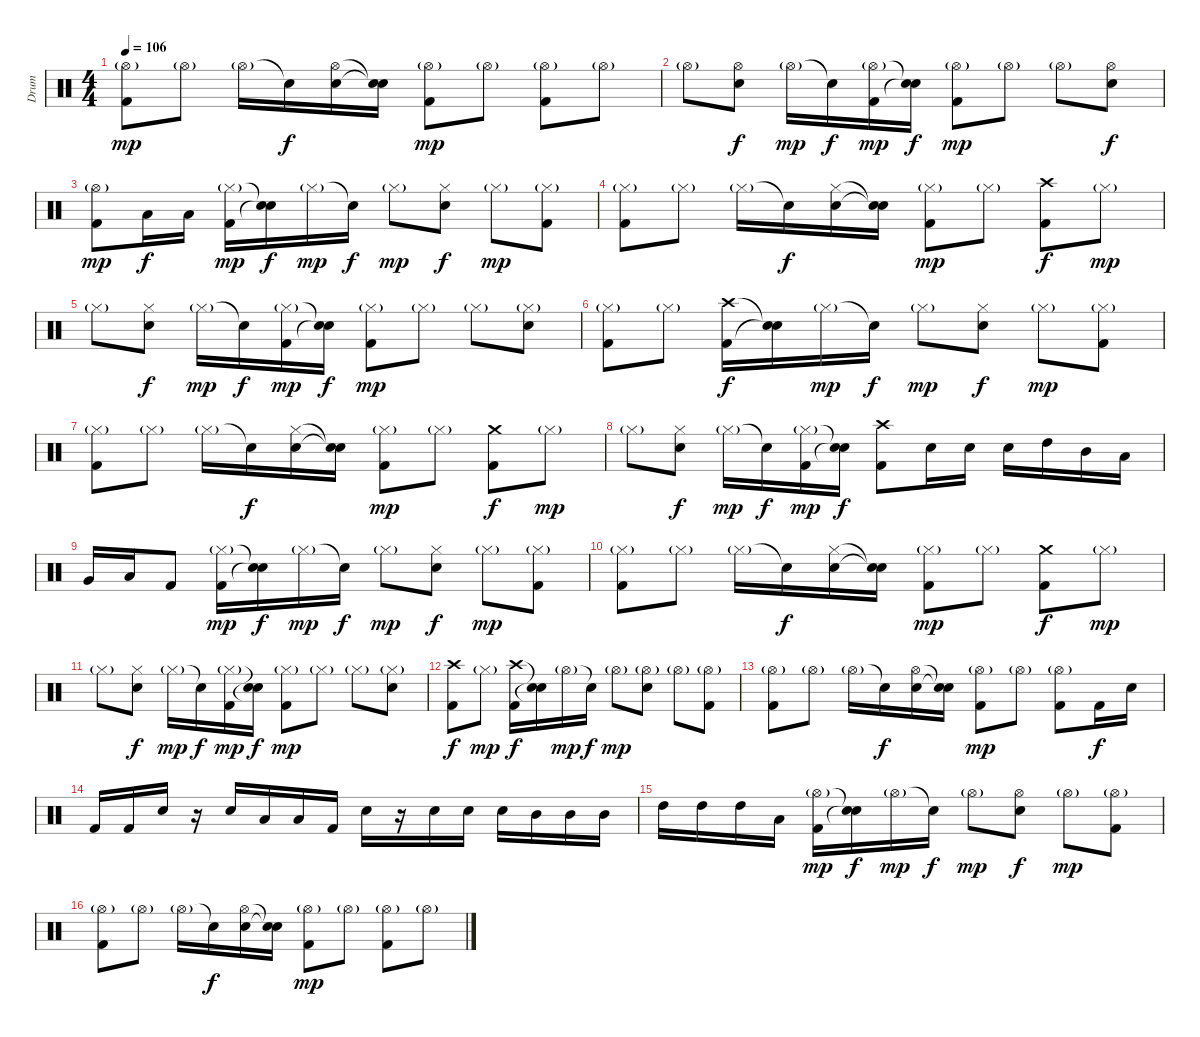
\track ("Drum" "Drum") {instrument percussion}
\staff {score}
\articulation defaults
\ts (4 4)
\tempo 106
\clef neutral
\ks c
("Hi-Hat (open)"{g} "Kick (hit) 2").8{dy mp} "Hi-Hat (open)"{g}.8 "Hi-Hat (open)"{g}.16 "Snare (hit)"{t}.16{dy f} ("Hi-Hat (open)" "Electric Snare (hit)").16 ("Snare (hit)"{t} "Snare (hit)"{t}).16 ("Hi-Hat (open)"{g} "Kick (hit) 2").8{dy mp} "Hi-Hat (open)"{g}.8 ("Hi-Hat (open)"{g} "Kick (hit) 2").8 "Hi-Hat (open)"{g}.8 |
"Hi-Hat (open)"{g}.8 ("Hi-Hat (open)" "Electric Snare (hit)").8{dy f} "Hi-Hat (open)"{g}.16{dy mp} "Snare (hit)"{t}.16{dy f} ("Hi-Hat (open)"{g} "Kick (hit) 2").16{dy mp} ("Snare (hit)"{t} "Snare (hit)"{t}).16{dy f} ("Hi-Hat (open)"{g} "Kick (hit) 2").8{dy mp} "Hi-Hat (open)"{g}.8 "Hi-Hat (open)"{g}.8 ("Hi-Hat (open)" "Electric Snare (hit)").8{dy f} |
("Hi-Hat (open)"{g} "Kick (hit) 2").8{dy mp} "Low Tom (hit)".16{dy f} "Low Floor Tom (hit)".16 ("Hi-Hat (closed)"{g} "Kick (hit) 2").16{dy mp} ("Snare (hit)"{t} "Snare (hit)"{t}).16{dy f} "Hi-Hat (closed)"{g}.16{dy mp} "Snare (hit)"{t}.16{dy f} "Hi-Hat (closed)"{g}.8{dy mp} ("Hi-Hat (closed)" "Electric Snare (hit)").8{dy f} "Hi-Hat (closed)"{g}.8{dy mp} ("Hi-Hat (closed)"{g} "Kick (hit) 2").8 |
("Hi-Hat (closed)"{g} "Kick (hit) 2").8 "Hi-Hat (closed)"{g}.8 "Hi-Hat (closed)"{g}.16 "Snare (hit)"{t}.16{dy f} ("Hi-Hat (closed)" "Electric Snare (hit)").16 ("Snare (hit)"{t} "Snare (hit)"{t}).16 ("Hi-Hat (closed)"{g} "Kick (hit) 2").8{dy mp} "Hi-Hat (closed)"{g}.8 ("Crash high (hit)" "Kick (hit) 2").8{dy f} "Hi-Hat (closed)"{g}.8{dy mp} |
"Hi-Hat (closed)"{g}.8 ("Hi-Hat (closed)" "Electric Snare (hit)").8{dy f} "Hi-Hat (closed)"{g}.16{dy mp} "Snare (hit)"{t}.16{dy f} ("Hi-Hat (closed)"{g} "Kick (hit) 2").16{dy mp} ("Snare (hit)"{t} "Snare (hit)"{t}).16{dy f} ("Hi-Hat (closed)"{g} "Kick (hit) 2").8{dy mp} "Hi-Hat (closed)"{g}.8 "Hi-Hat (closed)"{g}.8 ("Hi-Hat (closed)"{g} "Electric Snare (hit)").8 |
("Hi-Hat (closed)"{g} "Kick (hit) 2").8 "Hi-Hat (closed)"{g}.8 ("Crash high (hit)" "Kick (hit) 2").16{dy f} ("Snare (hit)"{t} "Snare (hit)"{t}).16 "Hi-Hat (closed)"{g}.16{dy mp} "Snare (hit)"{t}.16{dy f} "Hi-Hat (closed)"{g}.8{dy mp} ("Hi-Hat (closed)" "Electric Snare (hit)").8{dy f} "Hi-Hat (closed)"{g}.8{dy mp} ("Hi-Hat (closed)"{g} "Kick (hit) 2").8 |
("Hi-Hat (closed)"{g} "Kick (hit) 2").8 "Hi-Hat (closed)"{g}.8 "Hi-Hat (closed)"{g}.16 "Snare (hit)"{t}.16{dy f} ("Hi-Hat (closed)" "Electric Snare (hit)").16 ("Snare (hit)"{t} "Snare (hit)"{t}).16 ("Hi-Hat (closed)"{g} "Kick (hit) 2").8{dy mp} "Hi-Hat (closed)"{g}.8 ("Crash medium (hit)" "Kick (hit) 2").8{dy f} "Hi-Hat (closed)"{g}.8{dy mp} |
"Hi-Hat (closed)"{g}.8 ("Hi-Hat (closed)" "Electric Snare (hit)").8{dy f} "Hi-Hat (closed)"{g}.16{dy mp} "Snare (hit)"{t}.16{dy f} ("Hi-Hat (closed)"{g} "Kick (hit) 2").16{dy mp} ("Snare (hit)"{t} "Snare (hit)"{t}).16{dy f} ("Crash high (hit)" "Kick (hit) 2").8 "Electric Snare (hit)".16 "Electric Snare (hit)".16 "Electric Snare (hit)".16 "High Tom (hit)".16 "Mid Tom (hit)".16 "Low Tom (hit)".16 |
"Very Low Tom (hit)".16 "Low Floor Tom (hit)".16 "Kick (hit) 2".8 ("Hi-Hat (closed)"{g} "Kick (hit) 2").16{dy mp} ("Snare (hit)"{t} "Snare (hit)"{t}).16{dy f} "Hi-Hat (closed)"{g}.16{dy mp} "Snare (hit)"{t}.16{dy f} "Hi-Hat (closed)"{g}.8{dy mp} ("Hi-Hat (closed)" "Electric Snare (hit)").8{dy f} "Hi-Hat (closed)"{g}.8{dy mp} ("Hi-Hat (closed)"{g} "Kick (hit) 2").8 |
("Hi-Hat (closed)"{g} "Kick (hit) 2").8 "Hi-Hat (closed)"{g}.8 "Hi-Hat (closed)"{g}.16 "Snare (hit)"{t}.16{dy f} ("Hi-Hat (closed)" "Electric Snare (hit)").16 ("Snare (hit)"{t} "Snare (hit)"{t}).16 ("Hi-Hat (closed)"{g} "Kick (hit) 2").8{dy mp} "Hi-Hat (closed)"{g}.8 ("Crash medium (hit)" "Kick (hit) 2").8{dy f} "Hi-Hat (closed)"{g}.8{dy mp} |
"Hi-Hat (closed)"{g}.8 ("Hi-Hat (closed)" "Electric Snare (hit)").8{dy f} "Hi-Hat (closed)"{g}.16{dy mp} "Snare (hit)"{t}.16{dy f} ("Hi-Hat (closed)"{g} "Kick (hit) 2").16{dy mp} ("Snare (hit)"{t} "Snare (hit)"{t}).16{dy f} ("Hi-Hat (closed)"{g} "Kick (hit) 2").8{dy mp} "Hi-Hat (closed)"{g}.8 "Hi-Hat (closed)"{g}.8 ("Hi-Hat (closed)"{g} "Electric Snare (hit)").8 |
("Crash high (hit)" "Kick (hit) 2").8{dy f} "Hi-Hat (closed)"{g}.8{dy mp} ("Crash high (hit)" "Kick (hit) 2").16{dy f} ("Snare (hit)"{t} "Snare (hit)"{t}).16 "Hi-Hat (open)"{g}.16{dy mp} "Snare (hit)"{t}.16{dy f} "Hi-Hat (open)"{g}.8{dy mp} ("Hi-Hat (open)"{g} "Electric Snare (hit)").8 "Hi-Hat (open)"{g}.8 ("Hi-Hat (open)"{g} "Kick (hit) 2").8 |
("Hi-Hat (open)"{g} "Kick (hit) 2").8 "Hi-Hat (open)"{g}.8 "Hi-Hat (open)"{g}.16 "Snare (hit)"{t}.16{dy f} ("Hi-Hat (open)" "Electric Snare (hit)").16 ("Snare (hit)"{t} "Snare (hit)"{t}).16 ("Hi-Hat (open)"{g} "Kick (hit) 2").8{dy mp} "Hi-Hat (open)"{g}.8 ("Hi-Hat (open)"{g} "Kick (hit) 2").8 "Kick (hit) 2".16{dy f} "Electric Snare (hit)".16 |
"Kick (hit) 2".16 "Kick (hit) 2".16 "Electric Snare (hit)".16 r.16 "Electric Snare (hit)".16 "Low Tom (hit)".16 "Low Floor Tom (hit)".16 "Kick (hit) 2".16 "Electric Snare (hit)".16 r.16 "Electric Snare (hit)".16 "Electric Snare (hit)".16 "Electric Snare (hit)".16 "Mid Tom (hit)".16 "Mid Tom (hit)".16 "Mid Tom (hit)".16 |
"High Tom (hit)".16 "High Tom (hit)".16 "High Tom (hit)".16 "Low Tom (hit)".16 ("Hi-Hat (open)"{g} "Kick (hit) 2").16{dy mp} ("Snare (hit)"{t} "Snare (hit)"{t}).16{dy f} "Hi-Hat (open)"{g}.16{dy mp} "Snare (hit)"{t}.16{dy f} "Hi-Hat (open)"{g}.8{dy mp} ("Hi-Hat (open)" "Electric Snare (hit)").8{dy f} "Hi-Hat (open)"{g}.8{dy mp} ("Hi-Hat (open)"{g} "Kick (hit) 2").8 |
("Hi-Hat (open)"{g} "Kick (hit) 2").8 "Hi-Hat (open)"{g}.8 "Hi-Hat (open)"{g}.16 "Snare (hit)"{t}.16{dy f} ("Hi-Hat (open)" "Electric Snare (hit)").16 ("Snare (hit)"{t} "Snare (hit)"{t}).16 ("Hi-Hat (open)"{g} "Kick (hit) 2").8{dy mp} "Hi-Hat (open)"{g}.8 ("Hi-Hat (open)"{g} "Kick (hit) 2").8 "Hi-Hat (open)"{g}.8
